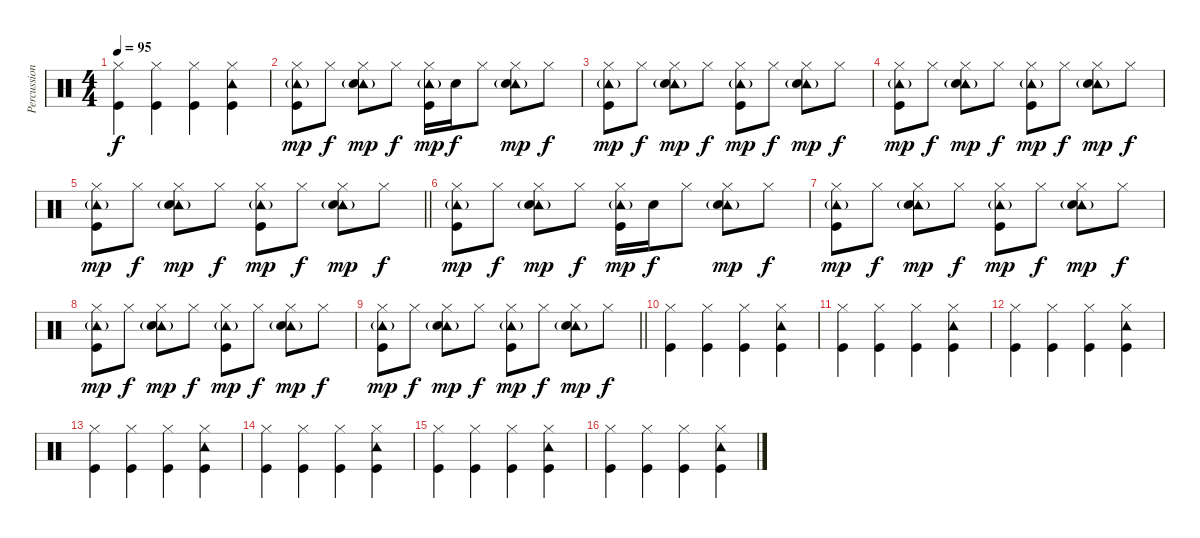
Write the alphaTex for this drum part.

\track ("Percussion" "Percussion") {instrument percussion}
\staff {score}
\articulation defaults
\ts (4 4)
\tempo 95
\clef neutral
\ks c
("Hi-Hat (closed)" "Kick (hit)").4{dy f} ("Hi-Hat (closed)" "Kick (hit)").4 ("Hi-Hat (closed)" "Kick (hit)").4 ("Hi-Hat (closed)" "Tambourine (hit)" "Kick (hit)").4 |
("Hi-Hat (closed)" "Tambourine (hit)"{g} "Kick (hit)").8{dy mp} "Hi-Hat (closed)".8{dy f} ("Hi-Hat (closed)" "Tambourine (hit)"{g} "Electric Snare (hit)").8{dy mp} "Hi-Hat (closed)".8{dy f} ("Hi-Hat (closed)" "Tambourine (hit)"{g} "Kick (hit)").16{dy mp} "Electric Snare (hit)".16{dy f} "Hi-Hat (closed)".8 ("Hi-Hat (closed)" "Tambourine (hit)"{g} "Electric Snare (hit)").8{dy mp} "Hi-Hat (closed)".8{dy f} |
("Hi-Hat (closed)" "Tambourine (hit)"{g} "Kick (hit)").8{dy mp} "Hi-Hat (closed)".8{dy f} ("Hi-Hat (closed)" "Tambourine (hit)"{g} "Electric Snare (hit)").8{dy mp} "Hi-Hat (closed)".8{dy f} ("Hi-Hat (closed)" "Tambourine (hit)"{g} "Kick (hit)").8{dy mp} "Hi-Hat (closed)".8{dy f} ("Hi-Hat (closed)" "Tambourine (hit)"{g} "Electric Snare (hit)").8{dy mp} "Hi-Hat (closed)".8{dy f} |
("Hi-Hat (closed)" "Tambourine (hit)"{g} "Kick (hit)").8{dy mp} "Hi-Hat (closed)".8{dy f} ("Hi-Hat (closed)" "Tambourine (hit)"{g} "Electric Snare (hit)").8{dy mp} "Hi-Hat (closed)".8{dy f} ("Hi-Hat (closed)" "Tambourine (hit)"{g} "Kick (hit)").8{dy mp} "Hi-Hat (closed)".8{dy f} ("Hi-Hat (closed)" "Tambourine (hit)"{g} "Electric Snare (hit)").8{dy mp} "Hi-Hat (closed)".8{dy f} |
\barLineRight lightlight
("Hi-Hat (closed)" "Tambourine (hit)"{g} "Kick (hit)").8{dy mp} "Hi-Hat (closed)".8{dy f} ("Hi-Hat (closed)" "Tambourine (hit)"{g} "Electric Snare (hit)").8{dy mp} "Hi-Hat (closed)".8{dy f} ("Hi-Hat (closed)" "Tambourine (hit)"{g} "Kick (hit)").8{dy mp} "Hi-Hat (closed)".8{dy f} ("Hi-Hat (closed)" "Tambourine (hit)"{g} "Electric Snare (hit)").8{dy mp} "Hi-Hat (closed)".8{dy f} |
("Hi-Hat (closed)" "Tambourine (hit)"{g} "Kick (hit)").8{dy mp} "Hi-Hat (closed)".8{dy f} ("Hi-Hat (closed)" "Tambourine (hit)"{g} "Electric Snare (hit)").8{dy mp} "Hi-Hat (closed)".8{dy f} ("Hi-Hat (closed)" "Tambourine (hit)"{g} "Kick (hit)").16{dy mp} "Electric Snare (hit)".16{dy f} "Hi-Hat (closed)".8 ("Hi-Hat (closed)" "Tambourine (hit)"{g} "Electric Snare (hit)").8{dy mp} "Hi-Hat (closed)".8{dy f} |
("Hi-Hat (closed)" "Tambourine (hit)"{g} "Kick (hit)").8{dy mp} "Hi-Hat (closed)".8{dy f} ("Hi-Hat (closed)" "Tambourine (hit)"{g} "Electric Snare (hit)").8{dy mp} "Hi-Hat (closed)".8{dy f} ("Hi-Hat (closed)" "Tambourine (hit)"{g} "Kick (hit)").8{dy mp} "Hi-Hat (closed)".8{dy f} ("Hi-Hat (closed)" "Tambourine (hit)"{g} "Electric Snare (hit)").8{dy mp} "Hi-Hat (closed)".8{dy f} |
("Hi-Hat (closed)" "Tambourine (hit)"{g} "Kick (hit)").8{dy mp} "Hi-Hat (closed)".8{dy f} ("Hi-Hat (closed)" "Tambourine (hit)"{g} "Electric Snare (hit)").8{dy mp} "Hi-Hat (closed)".8{dy f} ("Hi-Hat (closed)" "Tambourine (hit)"{g} "Kick (hit)").8{dy mp} "Hi-Hat (closed)".8{dy f} ("Hi-Hat (closed)" "Tambourine (hit)"{g} "Electric Snare (hit)").8{dy mp} "Hi-Hat (closed)".8{dy f} |
\barLineRight lightlight
("Hi-Hat (closed)" "Tambourine (hit)"{g} "Kick (hit)").8{dy mp} "Hi-Hat (closed)".8{dy f} ("Hi-Hat (closed)" "Tambourine (hit)"{g} "Electric Snare (hit)").8{dy mp} "Hi-Hat (closed)".8{dy f} ("Hi-Hat (closed)" "Tambourine (hit)"{g} "Kick (hit)").8{dy mp} "Hi-Hat (closed)".8{dy f} ("Hi-Hat (closed)" "Tambourine (hit)"{g} "Electric Snare (hit)").8{dy mp} "Hi-Hat (closed)".8{dy f} |
("Hi-Hat (closed)" "Kick (hit)").4 ("Hi-Hat (closed)" "Kick (hit)").4 ("Hi-Hat (closed)" "Kick (hit)").4 ("Hi-Hat (closed)" "Tambourine (hit)" "Kick (hit)").4 |
("Hi-Hat (closed)" "Kick (hit)").4 ("Hi-Hat (closed)" "Kick (hit)").4 ("Hi-Hat (closed)" "Kick (hit)").4 ("Hi-Hat (closed)" "Tambourine (hit)" "Kick (hit)").4 |
("Hi-Hat (closed)" "Kick (hit)").4 ("Hi-Hat (closed)" "Kick (hit)").4 ("Hi-Hat (closed)" "Kick (hit)").4 ("Hi-Hat (closed)" "Tambourine (hit)" "Kick (hit)").4 |
("Hi-Hat (closed)" "Kick (hit)").4 ("Hi-Hat (closed)" "Kick (hit)").4 ("Hi-Hat (closed)" "Kick (hit)").4 ("Hi-Hat (closed)" "Tambourine (hit)" "Kick (hit)").4 |
("Hi-Hat (closed)" "Kick (hit)").4 ("Hi-Hat (closed)" "Kick (hit)").4 ("Hi-Hat (closed)" "Kick (hit)").4 ("Hi-Hat (closed)" "Tambourine (hit)" "Kick (hit)").4 |
("Hi-Hat (closed)" "Kick (hit)").4 ("Hi-Hat (closed)" "Kick (hit)").4 ("Hi-Hat (closed)" "Kick (hit)").4 ("Hi-Hat (closed)" "Tambourine (hit)" "Kick (hit)").4 |
("Hi-Hat (closed)" "Kick (hit)").4 ("Hi-Hat (closed)" "Kick (hit)").4 ("Hi-Hat (closed)" "Kick (hit)").4 ("Hi-Hat (closed)" "Tambourine (hit)" "Kick (hit)").4
